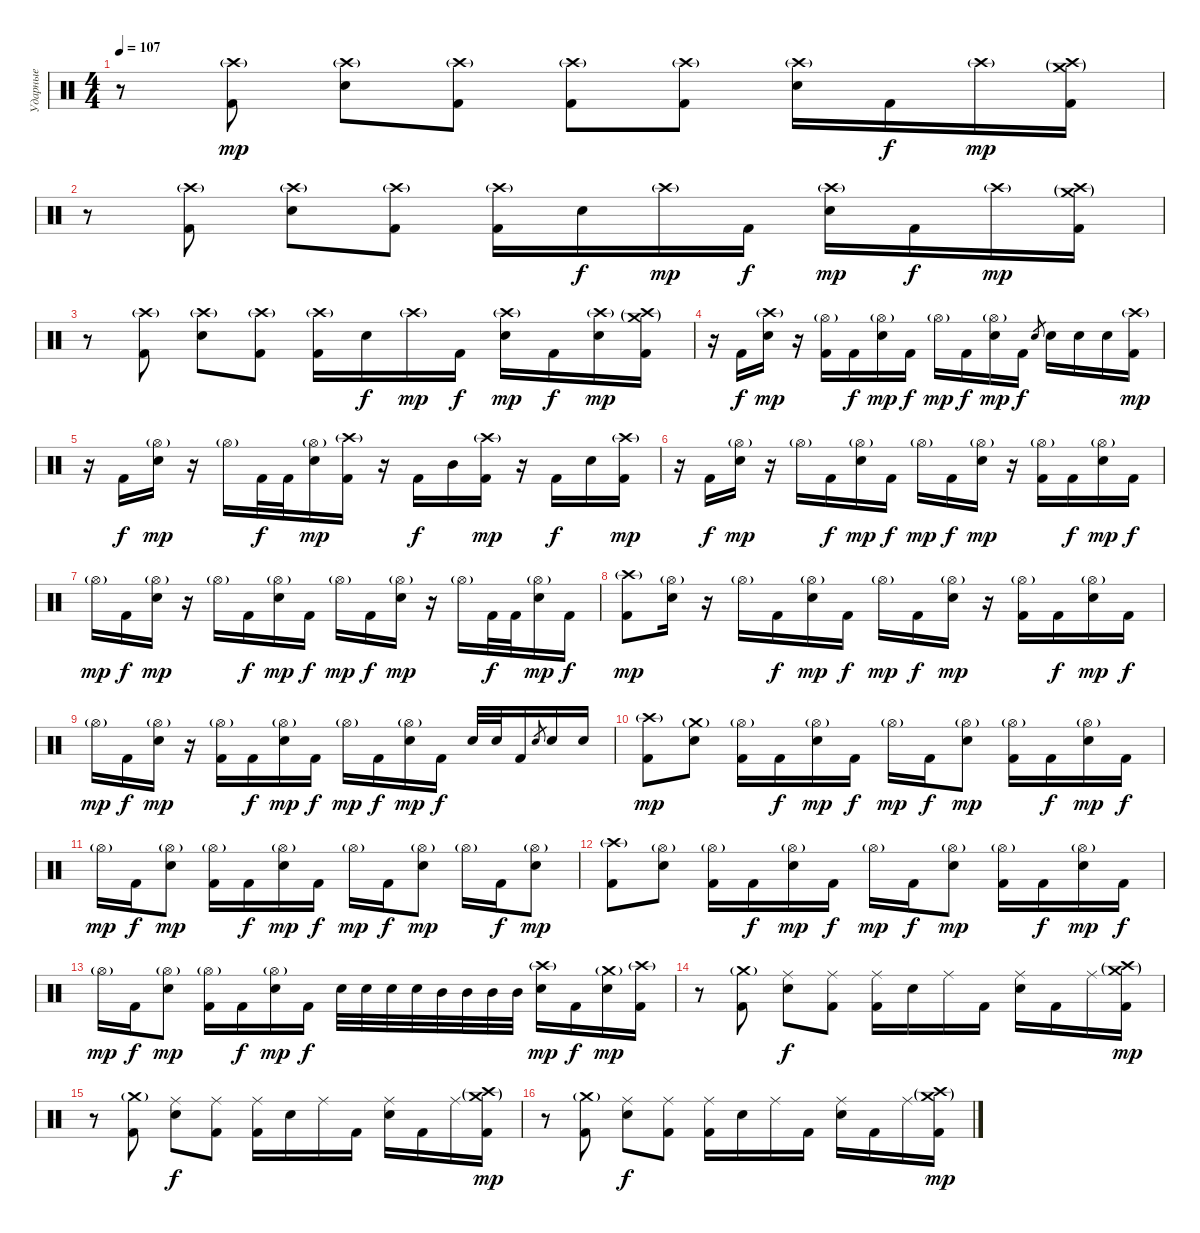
\track ("Ударные" "Ударные") {instrument percussion}
\staff {score}
\articulation defaults
\ts (4 4)
\tempo 107
\clef neutral
\ks c
r.8{dy mp} ("Crash high (hit)"{g} "Kick (hit) 2").8 ("Crash high (hit)"{g} "Electric Snare (hit)").8 ("Crash high (hit)"{g} "Kick (hit) 2").8 ("Crash high (hit)"{g} "Kick (hit) 2").8 ("Crash high (hit)"{g} "Kick (hit) 2").8 ("Crash high (hit)"{g} "Electric Snare (hit)").16 "Kick (hit) 2".16{dy f} "Crash high (hit)"{g}.16{dy mp} ("Crash high (hit)"{g} "Crash medium (hit)"{g} "Kick (hit) 2").16 |
r.8 ("Crash high (hit)"{g} "Kick (hit) 2").8 ("Crash high (hit)"{g} "Electric Snare (hit)").8 ("Crash high (hit)"{g} "Kick (hit) 2").8 ("Crash high (hit)"{g} "Kick (hit) 2").16 "Electric Snare (hit)".16{dy f} "Crash high (hit)"{g}.16{dy mp} "Kick (hit) 2".16{dy f} ("Crash high (hit)"{g} "Electric Snare (hit)").16{dy mp} "Kick (hit) 2".16{dy f} "Crash high (hit)"{g}.16{dy mp} ("Crash high (hit)"{g} "Crash medium (hit)"{g} "Kick (hit) 2").16 |
r.8 ("Crash high (hit)"{g} "Kick (hit) 2").8 ("Crash high (hit)"{g} "Electric Snare (hit)").8 ("Crash high (hit)"{g} "Kick (hit) 2").8 ("Crash high (hit)"{g} "Kick (hit) 2").16 "Electric Snare (hit)".16{dy f} "Crash high (hit)"{g}.16{dy mp} "Kick (hit) 2".16{dy f} ("Crash high (hit)"{g} "Electric Snare (hit)").16{dy mp} "Kick (hit) 2".16{dy f} ("Crash high (hit)"{g} "Electric Snare (hit)").16{dy mp} ("Crash high (hit)"{g} "Crash medium (hit)"{g} "Kick (hit) 2").16 |
r.16 "Kick (hit) 2".16{dy f} ("Crash high (hit)"{g} "Electric Snare (hit)").16{dy mp} r.16 ("Hi-Hat (open)"{g} "Kick (hit) 2").16 "Kick (hit) 2".16{dy f} ("Hi-Hat (open)"{g} "Electric Snare (hit)").16{dy mp} "Kick (hit) 2".16{dy f} "Hi-Hat (open)"{g}.16{dy mp} "Kick (hit) 2".16{dy f} ("Hi-Hat (open)"{g} "Electric Snare (hit)").16{dy mp} "Kick (hit) 2".16{dy f} "Electric Snare (hit)".8{gr} "Electric Snare (hit)".16 "Electric Snare (hit)".16 "Electric Snare (hit)".16 ("Crash high (hit)"{g} "Kick (hit) 2").16{dy mp} |
r.16 "Kick (hit) 2".16{dy f} ("Hi-Hat (open)"{g} "Electric Snare (hit)").16{dy mp} r.16 "Hi-Hat (open)"{g}.16 "Kick (hit) 2".32{dy f} "Kick (hit) 2".32 ("Hi-Hat (open)"{g} "Electric Snare (hit)").16{dy mp} ("Crash high (hit)"{g} "Kick (hit) 2").16 r.16 "Kick (hit) 2".16{dy f} "Mid Tom (hit)".16 ("Crash high (hit)"{g} "Kick (hit) 2").16{dy mp} r.16 "Kick (hit) 2".16{dy f} "Electric Snare (hit)".16 ("Crash high (hit)"{g} "Kick (hit) 2").16{dy mp} |
r.16 "Kick (hit) 2".16{dy f} ("Hi-Hat (open)"{g} "Electric Snare (hit)").16{dy mp} r.16 "Hi-Hat (open)"{g}.16 "Kick (hit) 2".16{dy f} ("Hi-Hat (open)"{g} "Electric Snare (hit)").16{dy mp} "Kick (hit) 2".16{dy f} "Hi-Hat (open)"{g}.16{dy mp} "Kick (hit) 2".16{dy f} ("Hi-Hat (open)"{g} "Electric Snare (hit)").16{dy mp} r.16 ("Hi-Hat (open)"{g} "Kick (hit) 2").16 "Kick (hit) 2".16{dy f} ("Hi-Hat (open)"{g} "Electric Snare (hit)").16{dy mp} "Kick (hit) 2".16{dy f} |
"Hi-Hat (open)"{g}.16{dy mp} "Kick (hit) 2".16{dy f} ("Hi-Hat (open)"{g} "Electric Snare (hit)").16{dy mp} r.16 "Hi-Hat (open)"{g}.16 "Kick (hit) 2".16{dy f} ("Hi-Hat (open)"{g} "Electric Snare (hit)").16{dy mp} "Kick (hit) 2".16{dy f} "Hi-Hat (open)"{g}.16{dy mp} "Kick (hit) 2".16{dy f} ("Hi-Hat (open)"{g} "Electric Snare (hit)").16{dy mp} r.16 "Hi-Hat (open)"{g}.16 "Kick (hit) 2".32{dy f} "Kick (hit) 2".32 ("Hi-Hat (open)"{g} "Electric Snare (hit)").16{dy mp} "Kick (hit) 2".16{dy f} |
("Crash high (hit)"{g} "Kick (hit) 2").8{dy mp} ("Hi-Hat (open)"{g} "Electric Snare (hit)").16 r.16 "Hi-Hat (open)"{g}.16 "Kick (hit) 2".16{dy f} ("Hi-Hat (open)"{g} "Electric Snare (hit)").16{dy mp} "Kick (hit) 2".16{dy f} "Hi-Hat (open)"{g}.16{dy mp} "Kick (hit) 2".16{dy f} ("Hi-Hat (open)"{g} "Electric Snare (hit)").16{dy mp} r.16 ("Hi-Hat (open)"{g} "Kick (hit) 2").16 "Kick (hit) 2".16{dy f} ("Hi-Hat (open)"{g} "Electric Snare (hit)").16{dy mp} "Kick (hit) 2".16{dy f} |
"Hi-Hat (open)"{g}.16{dy mp} "Kick (hit) 2".16{dy f} ("Hi-Hat (open)"{g} "Electric Snare (hit)").16{dy mp} r.16 ("Hi-Hat (open)"{g} "Kick (hit) 2").16 "Kick (hit) 2".16{dy f} ("Hi-Hat (open)"{g} "Electric Snare (hit)").16{dy mp} "Kick (hit) 2".16{dy f} "Hi-Hat (open)"{g}.16{dy mp} "Kick (hit) 2".16{dy f} ("Hi-Hat (open)"{g} "Electric Snare (hit)").16{dy mp} "Kick (hit) 2".16{dy f} "Electric Snare (hit)".32 "Electric Snare (hit)".32 "Kick (hit) 2".16 "Electric Snare (hit)".8{gr} "Electric Snare (hit)".16 "Electric Snare (hit)".16 |
("Crash high (hit)"{g} "Kick (hit) 2").8{dy mp} ("Crash medium (hit)"{g} "Electric Snare (hit)").8 ("Hi-Hat (open)"{g} "Kick (hit) 2").16 "Kick (hit) 2".16{dy f} ("Hi-Hat (open)"{g} "Electric Snare (hit)").16{dy mp} "Kick (hit) 2".16{dy f} "Hi-Hat (open)"{g}.16{dy mp} "Kick (hit) 2".16{dy f} ("Hi-Hat (open)"{g} "Electric Snare (hit)").8{dy mp} ("Hi-Hat (open)"{g} "Kick (hit) 2").16 "Kick (hit) 2".16{dy f} ("Hi-Hat (open)"{g} "Electric Snare (hit)").16{dy mp} "Kick (hit) 2".16{dy f} |
"Hi-Hat (open)"{g}.16{dy mp} "Kick (hit) 2".16{dy f} ("Hi-Hat (open)"{g} "Electric Snare (hit)").8{dy mp} ("Hi-Hat (open)"{g} "Kick (hit) 2").16 "Kick (hit) 2".16{dy f} ("Hi-Hat (open)"{g} "Electric Snare (hit)").16{dy mp} "Kick (hit) 2".16{dy f} "Hi-Hat (open)"{g}.16{dy mp} "Kick (hit) 2".16{dy f} ("Hi-Hat (open)"{g} "Electric Snare (hit)").8{dy mp} "Hi-Hat (open)"{g}.16 "Kick (hit) 2".16{dy f} ("Hi-Hat (open)"{g} "Electric Snare (hit)").8{dy mp} |
("Crash high (hit)"{g} "Kick (hit) 2").8 ("Hi-Hat (open)"{g} "Electric Snare (hit)").8 ("Hi-Hat (open)"{g} "Kick (hit) 2").16 "Kick (hit) 2".16{dy f} ("Hi-Hat (open)"{g} "Electric Snare (hit)").16{dy mp} "Kick (hit) 2".16{dy f} "Hi-Hat (open)"{g}.16{dy mp} "Kick (hit) 2".16{dy f} ("Hi-Hat (open)"{g} "Electric Snare (hit)").8{dy mp} ("Hi-Hat (open)"{g} "Kick (hit) 2").16 "Kick (hit) 2".16{dy f} ("Hi-Hat (open)"{g} "Electric Snare (hit)").16{dy mp} "Kick (hit) 2".16{dy f} |
"Hi-Hat (open)"{g}.16{dy mp} "Kick (hit) 2".16{dy f} ("Hi-Hat (open)"{g} "Electric Snare (hit)").8{dy mp} ("Hi-Hat (open)"{g} "Kick (hit) 2").16 "Kick (hit) 2".16{dy f} ("Hi-Hat (open)"{g} "Electric Snare (hit)").16{dy mp} "Kick (hit) 2".16{dy f} "Electric Snare (hit)".32 "Electric Snare (hit)".32 "Electric Snare (hit)".32 "Electric Snare (hit)".32 "Mid Tom (hit)".32 "Mid Tom (hit)".32 "Mid Tom (hit)".32 "Mid Tom (hit)".32 ("Crash high (hit)"{g} "Electric Snare (hit)").16{dy mp} "Kick (hit) 2".16{dy f} ("Crash medium (hit)"{g} "Electric Snare (hit)").16{dy mp} ("Crash high (hit)"{g} "Kick (hit) 2").16 |
r.8 ("Crash medium (hit)"{g} "Kick (hit) 2").8 ("Ride (middle)" "Electric Snare (hit)").8{dy f} ("Ride (middle)" "Kick (hit) 2").8 ("Ride (middle)" "Kick (hit) 2").16 "Electric Snare (hit)".16 "Ride (middle)".16 "Kick (hit) 2".16 ("Ride (middle)" "Electric Snare (hit)").16 "Kick (hit) 2".16 "Ride (middle)".16 ("Crash high (hit)"{g} "Crash medium (hit)"{g} "Kick (hit) 2").16{dy mp} |
r.8 ("Crash medium (hit)"{g} "Kick (hit) 2").8 ("Ride (middle)" "Electric Snare (hit)").8{dy f} ("Ride (middle)" "Kick (hit) 2").8 ("Ride (middle)" "Kick (hit) 2").16 "Electric Snare (hit)".16 "Ride (middle)".16 "Kick (hit) 2".16 ("Ride (middle)" "Electric Snare (hit)").16 "Kick (hit) 2".16 "Ride (middle)".16 ("Crash high (hit)"{g} "Crash medium (hit)"{g} "Kick (hit) 2").16{dy mp} |
r.8 ("Crash medium (hit)"{g} "Kick (hit) 2").8 ("Ride (middle)" "Electric Snare (hit)").8{dy f} ("Ride (middle)" "Kick (hit) 2").8 ("Ride (middle)" "Kick (hit) 2").16 "Electric Snare (hit)".16 "Ride (middle)".16 "Kick (hit) 2".16 ("Ride (middle)" "Electric Snare (hit)").16 "Kick (hit) 2".16 "Ride (middle)".16 ("Crash high (hit)"{g} "Crash medium (hit)"{g} "Kick (hit) 2").16{dy mp}
